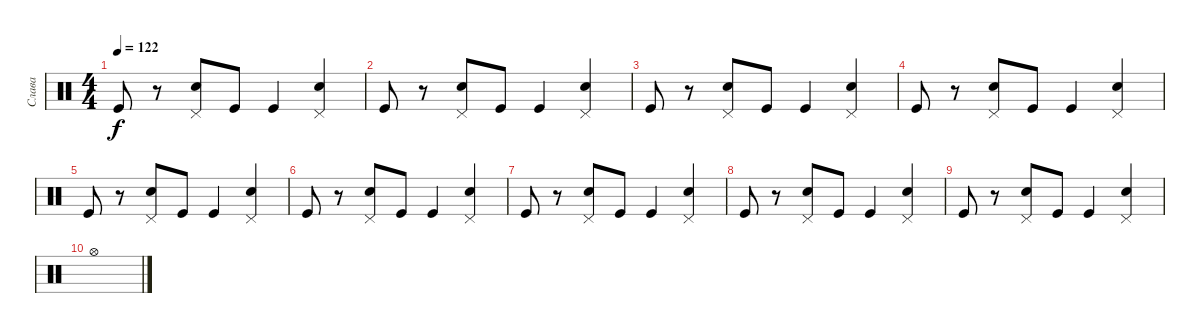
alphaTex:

\track ("Слава" "Слава") {instrument percussion}
\staff {score}
\articulation defaults
\ts (4 4)
\tempo 122
\clef neutral
\ks c "Kick (hit)".8{dy f}
r.8 ("Pedal Hi-Hat (hit)" "Snare (hit) 2").8 "Kick (hit)".8 "Kick (hit)".4 ("Pedal Hi-Hat (hit)" "Snare (hit) 2").4 |
"Kick (hit)".8 r.8 ("Pedal Hi-Hat (hit)" "Snare (hit) 2").8 "Kick (hit)".8 "Kick (hit)".4 ("Pedal Hi-Hat (hit)" "Snare (hit) 2").4 |
"Kick (hit)".8 r.8 ("Pedal Hi-Hat (hit)" "Snare (hit) 2").8 "Kick (hit)".8 "Kick (hit)".4 ("Pedal Hi-Hat (hit)" "Snare (hit) 2").4 |
"Kick (hit)".8 r.8 ("Pedal Hi-Hat (hit)" "Snare (hit) 2").8 "Kick (hit)".8 "Kick (hit)".4 ("Pedal Hi-Hat (hit)" "Snare (hit) 2").4 |
"Kick (hit)".8 r.8 ("Pedal Hi-Hat (hit)" "Snare (hit) 2").8 "Kick (hit)".8 "Kick (hit)".4 ("Pedal Hi-Hat (hit)" "Snare (hit) 2").4 |
"Kick (hit)".8 r.8 ("Pedal Hi-Hat (hit)" "Snare (hit) 2").8 "Kick (hit)".8 "Kick (hit)".4 ("Pedal Hi-Hat (hit)" "Snare (hit) 2").4 |
"Kick (hit)".8 r.8 ("Pedal Hi-Hat (hit)" "Snare (hit) 2").8 "Kick (hit)".8 "Kick (hit)".4 ("Pedal Hi-Hat (hit)" "Snare (hit) 2").4 |
"Kick (hit)".8 r.8 ("Pedal Hi-Hat (hit)" "Snare (hit) 2").8 "Kick (hit)".8 "Kick (hit)".4 ("Pedal Hi-Hat (hit)" "Snare (hit) 2").4 |
"Kick (hit)".8 r.8 ("Pedal Hi-Hat (hit)" "Snare (hit) 2").8 "Kick (hit)".8 "Kick (hit)".4 ("Pedal Hi-Hat (hit)" "Snare (hit) 2").4 |
"Hi-Hat (open)".1
